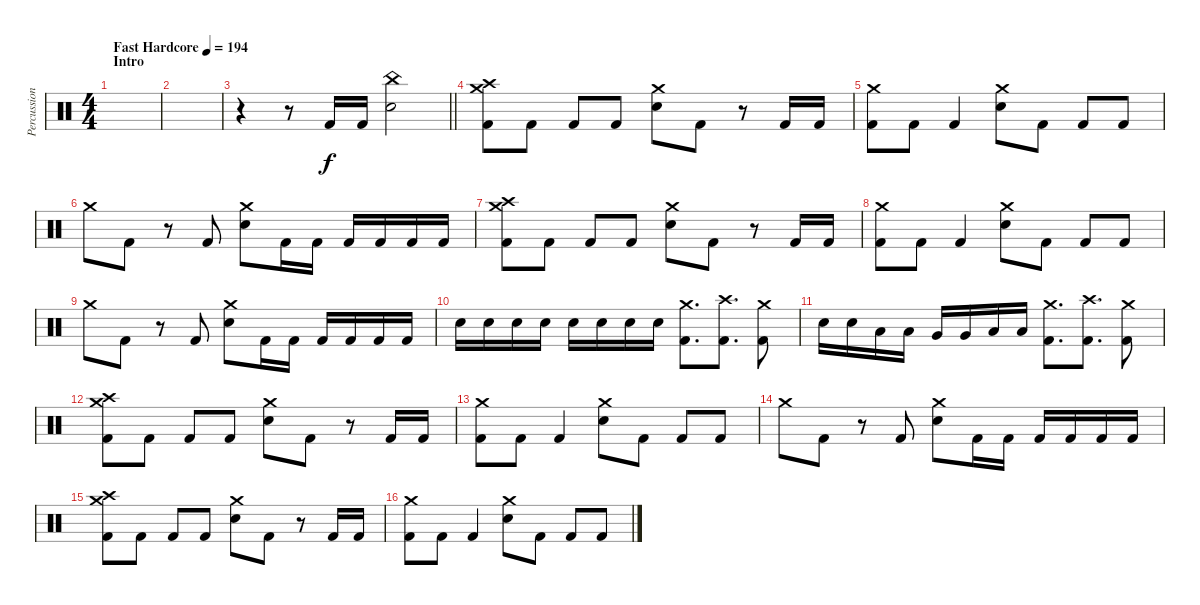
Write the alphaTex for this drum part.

\track ("Percussion" "Percussion") {instrument percussion}
\staff {score}
\articulation defaults
\ts (4 4)
\section ("" "Intro")
\tempo (194 "Fast Hardcore")
\clef neutral
\ks c
|
|
\barLineRight lightlight
r.4 r.8 "Kick (hit) 2".16 "Kick (hit) 2".16 ("China (hit)" "Electric Snare (hit)").2 |
("Crash medium (hit)" "Crash high (hit)" "Kick (hit) 2").8 "Kick (hit) 2".8 "Kick (hit) 2".8 "Kick (hit) 2".8 ("Crash medium (hit)" "Electric Snare (hit)").8 "Kick (hit) 2".8 r.8 "Kick (hit) 2".16 "Kick (hit) 2".16 |
("Crash medium (hit)" "Kick (hit) 2").8 "Kick (hit) 2".8 "Kick (hit) 2".4 ("Crash medium (hit)" "Electric Snare (hit)").8 "Kick (hit) 2".8 "Kick (hit) 2".8 "Kick (hit) 2".8 |
"Crash medium (hit)".8 "Kick (hit) 2".8 r.8 "Kick (hit) 2".8 ("Crash medium (hit)" "Electric Snare (hit)").8 "Kick (hit) 2".16 "Kick (hit) 2".16 "Kick (hit) 2".16 "Kick (hit) 2".16 "Kick (hit) 2".16 "Kick (hit) 2".16 |
("Crash medium (hit)" "Crash high (hit)" "Kick (hit) 2").8 "Kick (hit) 2".8 "Kick (hit) 2".8 "Kick (hit) 2".8 ("Crash medium (hit)" "Electric Snare (hit)").8 "Kick (hit) 2".8 r.8 "Kick (hit) 2".16 "Kick (hit) 2".16 |
("Crash medium (hit)" "Kick (hit) 2").8 "Kick (hit) 2".8 "Kick (hit) 2".4 ("Crash medium (hit)" "Electric Snare (hit)").8 "Kick (hit) 2".8 "Kick (hit) 2".8 "Kick (hit) 2".8 |
"Crash medium (hit)".8 "Kick (hit) 2".8 r.8 "Kick (hit) 2".8 ("Crash medium (hit)" "Electric Snare (hit)").8 "Kick (hit) 2".16 "Kick (hit) 2".16 "Kick (hit) 2".16 "Kick (hit) 2".16 "Kick (hit) 2".16 "Kick (hit) 2".16 |
"Electric Snare (hit)".16 "Electric Snare (hit)".16 "Electric Snare (hit)".16 "Electric Snare (hit)".16 "Electric Snare (hit)".16 "Electric Snare (hit)".16 "Electric Snare (hit)".16 "Electric Snare (hit)".16 ("Crash medium (hit)" "Kick (hit) 2").8{d} ("Crash high (hit)" "Kick (hit) 2").8{d} ("Crash medium (hit)" "Kick (hit) 2").8 |
"Electric Snare (hit)".16 "Electric Snare (hit)".16 "Low Tom (hit)".16 "Low Tom (hit)".16 "Very Low Tom (hit)".16 "Very Low Tom (hit)".16 "Low Floor Tom (hit)".16 "Low Floor Tom (hit)".16 ("Crash medium (hit)" "Kick (hit) 2").8{d} ("Crash high (hit)" "Kick (hit) 2").8{d} ("Crash medium (hit)" "Kick (hit) 2").8 |
("Crash medium (hit)" "Crash high (hit)" "Kick (hit) 2").8 "Kick (hit) 2".8 "Kick (hit) 2".8 "Kick (hit) 2".8 ("Crash medium (hit)" "Electric Snare (hit)").8 "Kick (hit) 2".8 r.8 "Kick (hit) 2".16 "Kick (hit) 2".16 |
("Crash medium (hit)" "Kick (hit) 2").8 "Kick (hit) 2".8 "Kick (hit) 2".4 ("Crash medium (hit)" "Electric Snare (hit)").8 "Kick (hit) 2".8 "Kick (hit) 2".8 "Kick (hit) 2".8 |
"Crash medium (hit)".8 "Kick (hit) 2".8 r.8 "Kick (hit) 2".8 ("Crash medium (hit)" "Electric Snare (hit)").8 "Kick (hit) 2".16 "Kick (hit) 2".16 "Kick (hit) 2".16 "Kick (hit) 2".16 "Kick (hit) 2".16 "Kick (hit) 2".16 |
("Crash medium (hit)" "Crash high (hit)" "Kick (hit) 2").8 "Kick (hit) 2".8 "Kick (hit) 2".8 "Kick (hit) 2".8 ("Crash medium (hit)" "Electric Snare (hit)").8 "Kick (hit) 2".8 r.8 "Kick (hit) 2".16 "Kick (hit) 2".16 |
("Crash medium (hit)" "Kick (hit) 2").8 "Kick (hit) 2".8 "Kick (hit) 2".4 ("Crash medium (hit)" "Electric Snare (hit)").8 "Kick (hit) 2".8 "Kick (hit) 2".8 "Kick (hit) 2".8
